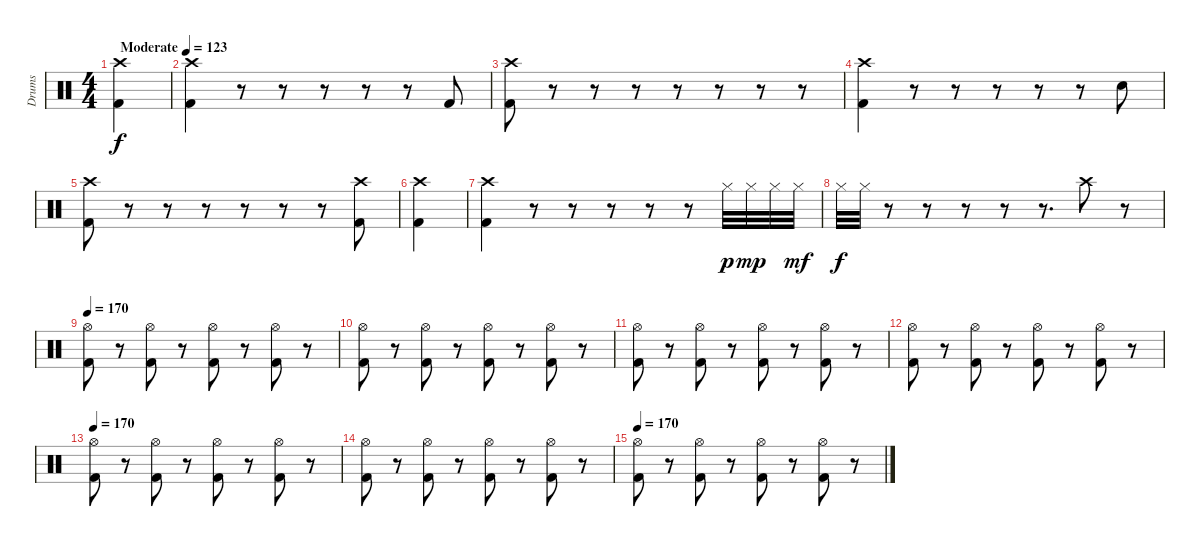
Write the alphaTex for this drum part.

\track ("Drums" "Drums") {instrument percussion}
\staff {score}
\articulation defaults
\ts (4 4)
\tempo (123 "Moderate")
\clef neutral
\ks c
("Crash high (hit)" "Kick (hit) 2").4{dy f} |
("Crash high (hit)" "Kick (hit) 2").4 r.8 r.8 r.8 r.8 r.8 "Kick (hit) 2".8 |
("Crash high (hit)" "Kick (hit) 2").8 r.8 r.8 r.8 r.8 r.8 r.8 r.8 |
("Crash high (hit)" "Kick (hit) 2").4 r.8 r.8 r.8 r.8 r.8 "Snare (hit) 2".8 |
("Crash high (hit)" "Kick (hit) 2").8 r.8 r.8 r.8 r.8 r.8 r.8 ("Crash high (hit)" "Kick (hit) 2").8 |
("Crash high (hit)" "Kick (hit) 2").4 |
("Crash high (hit)" "Kick (hit) 2").4 r.8 r.8 r.8 r.8 r.8 "Hi-Hat (closed)".32{dy p} "Hi-Hat (closed)".32{dy mp} "Hi-Hat (closed)".32 "Hi-Hat (closed)".32{dy mf} |
"Hi-Hat (closed)".32{dy f} "Hi-Hat (closed)".32 r.8 r.8 r.8 r.8 r.8{d} "Crash high (hit)".8 r.8 |
\tempo 170
("Hi-Hat (open)" "Kick (hit) 2").8 r.8 ("Hi-Hat (open)" "Kick (hit) 2").8 r.8 ("Hi-Hat (open)" "Kick (hit) 2").8 r.8 ("Hi-Hat (open)" "Kick (hit) 2").8 r.8 |
("Hi-Hat (open)" "Kick (hit) 2").8 r.8 ("Hi-Hat (open)" "Kick (hit) 2").8 r.8 ("Hi-Hat (open)" "Kick (hit) 2").8 r.8 ("Hi-Hat (open)" "Kick (hit) 2").8 r.8 |
("Hi-Hat (open)" "Kick (hit) 2").8 r.8 ("Hi-Hat (open)" "Kick (hit) 2").8 r.8 ("Hi-Hat (open)" "Kick (hit) 2").8 r.8 ("Hi-Hat (open)" "Kick (hit) 2").8 r.8 |
("Hi-Hat (open)" "Kick (hit) 2").8 r.8 ("Hi-Hat (open)" "Kick (hit) 2").8 r.8 ("Hi-Hat (open)" "Kick (hit) 2").8 r.8 ("Hi-Hat (open)" "Kick (hit) 2").8 r.8 |
\tempo 170
("Hi-Hat (open)" "Kick (hit) 2").8 r.8 ("Hi-Hat (open)" "Kick (hit) 2").8 r.8 ("Hi-Hat (open)" "Kick (hit) 2").8 r.8 ("Hi-Hat (open)" "Kick (hit) 2").8 r.8 |
("Hi-Hat (open)" "Kick (hit) 2").8 r.8 ("Hi-Hat (open)" "Kick (hit) 2").8 r.8 ("Hi-Hat (open)" "Kick (hit) 2").8 r.8 ("Hi-Hat (open)" "Kick (hit) 2").8 r.8 |
\tempo 170
("Hi-Hat (open)" "Kick (hit) 2").8 r.8 ("Hi-Hat (open)" "Kick (hit) 2").8 r.8 ("Hi-Hat (open)" "Kick (hit) 2").8 r.8 ("Hi-Hat (open)" "Kick (hit) 2").8 r.8
